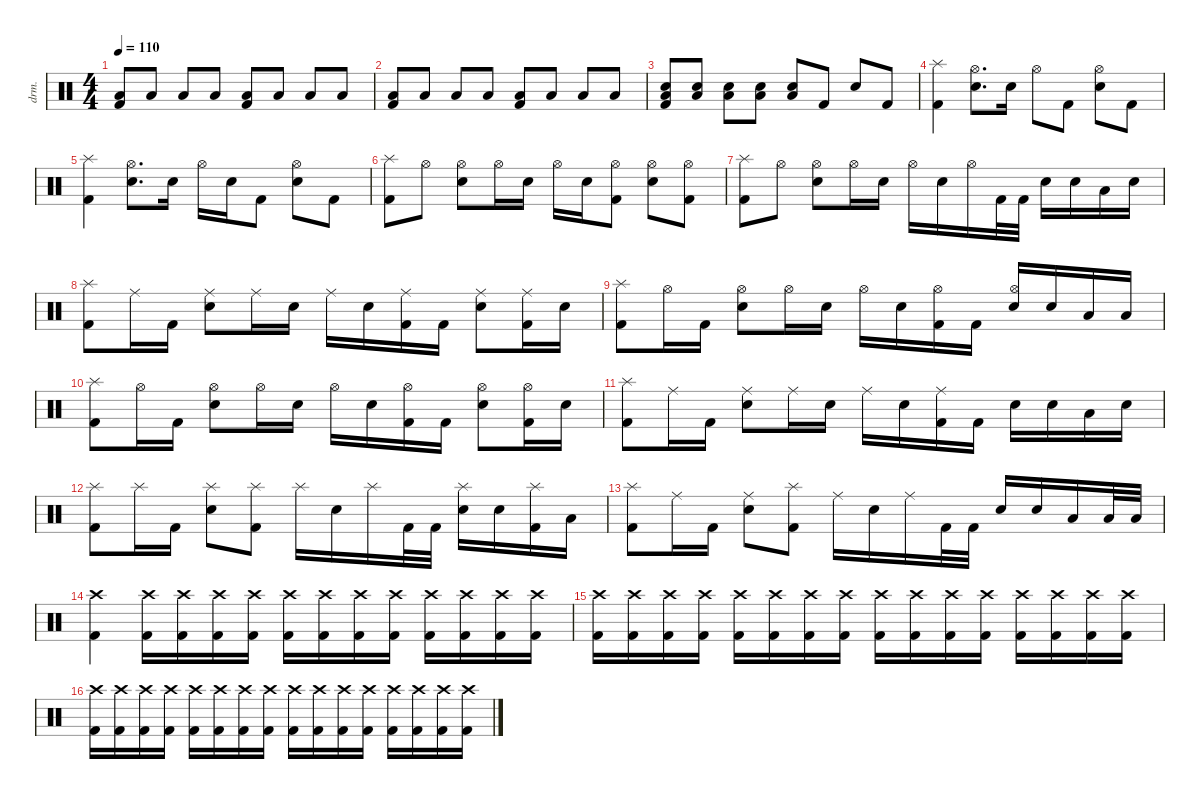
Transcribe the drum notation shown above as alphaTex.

\defaultSystemsLayout 4
\hideDynamics
\bracketExtendMode nobrackets
\track ("Drumkit" "drm.") {instrument percussion}
\staff {score}
\articulation defaults
\ts (4 4)
\tempo 110
\clef neutral
\ks c
("Kick (hit) 2" "Low Tom (hit)").8{dy mf beam Up} "Low Tom (hit)".8{beam Up} "Low Tom (hit)".8{beam Up} "Low Tom (hit)".8{beam Up} ("Low Tom (hit)" "Kick (hit) 2").8{beam Up} "Low Tom (hit)".8{beam Up} "Low Tom (hit)".8{beam Up} "Low Tom (hit)".8{beam Up} |
("Kick (hit) 2" "Low Tom (hit)").8{beam Up} "Low Tom (hit)".8{beam Up} "Low Tom (hit)".8{beam Up} "Low Tom (hit)".8{beam Up} ("Low Tom (hit)" "Kick (hit) 2").8{beam Up} "Low Tom (hit)".8{beam Up} "Low Tom (hit)".8{beam Up} "Low Tom (hit)".8{beam Up} |
("Kick (hit) 2" "Low Tom (hit)" "Snare (hit) 2").8{beam Up} ("Snare (hit) 2" "Low Tom (hit)").8{beam Up} ("Low Tom (hit)" "Snare (hit) 2").8{beam Down} ("Snare (hit) 2" "Low Tom (hit)").8{beam Down} ("Low Tom (hit)" "Snare (hit) 2").8{beam Up} "Kick (hit) 2".8{beam Up} "Snare (hit) 2".8{beam Up} "Kick (hit) 2".8{beam Up} |
("Kick (hit) 2" "Splash (hit)").4{beam Down} ("Hi-Hat (open)" "Snare (hit) 2").8{d beam Down} "Snare (hit) 2".16{beam Down} "Hi-Hat (open)".8{beam Down} "Kick (hit) 2".8{beam Down} ("Snare (hit) 2" "Hi-Hat (open)").8{beam Down} "Kick (hit) 2".8{beam Down} |
("Kick (hit) 2" "Splash (hit)").4{beam Down} ("Hi-Hat (open)" "Snare (hit) 2").8{d beam Down} "Snare (hit) 2".16{beam Down} "Hi-Hat (open)".16{beam Down} "Snare (hit) 2".16{beam Down} "Kick (hit) 2".8{beam Down} ("Snare (hit) 2" "Hi-Hat (open)").8{beam Down} "Kick (hit) 2".8{beam Down} |
("Splash (hit)" "Kick (hit) 2").8{beam Down} "Hi-Hat (open)".8{beam Down} ("Hi-Hat (open)" "Snare (hit) 2").8{beam Down} "Hi-Hat (open)".16{beam Down} "Snare (hit) 2".16{beam Down} "Hi-Hat (open)".16{beam Down} "Snare (hit) 2".16{beam Down} ("Kick (hit) 2" "Hi-Hat (open)").8{beam Down} ("Hi-Hat (open)" "Snare (hit) 2").8{beam Down} ("Hi-Hat (open)" "Kick (hit) 2").8{beam Down} |
("Kick (hit) 2" "Splash (hit)").8{beam Down} "Hi-Hat (open)".8{beam Down} ("Hi-Hat (open)" "Snare (hit) 2").8{beam Down} "Hi-Hat (open)".16{beam Down} "Snare (hit) 2".16{beam Down} "Hi-Hat (open)".16{beam Down} "Snare (hit) 2".16{beam Down} "Hi-Hat (open)".16{beam Down} "Kick (hit) 2".32{beam Down} "Kick (hit) 2".32{beam Down} "Snare (hit) 2".16{beam Down} "Snare (hit) 2".16{beam Down} "Low Tom (hit)".16{beam Down} "Snare (hit) 2".16{beam Down} |
("Splash (hit)" "Kick (hit) 2").8{beam Down} "Ride (middle)".16{beam Down} "Kick (hit) 2".16{beam Down} ("Ride (middle)" "Snare (hit) 2").8{beam Down} "Ride (middle)".16{beam Down} "Snare (hit) 2".16{beam Down} "Ride (middle)".16{beam Down} "Snare (hit) 2".16{beam Down} ("Ride (middle)" "Kick (hit) 2").16{beam Down} "Kick (hit) 2".16{beam Down} ("Snare (hit) 2" "Ride (middle)").8{beam Down} ("Ride (middle)" "Kick (hit) 2").16{beam Down} "Snare (hit) 2".16{beam Down} |
("Splash (hit)" "Kick (hit) 2").8{beam Down} "Hi-Hat (open)".16{beam Down} "Kick (hit) 2".16{beam Down} ("Hi-Hat (open)" "Snare (hit) 2").8{beam Down} "Hi-Hat (open)".16{beam Down} "Snare (hit) 2".16{beam Down} "Hi-Hat (open)".16{beam Down} "Snare (hit) 2".16{beam Down} ("Hi-Hat (open)" "Kick (hit) 2").16{beam Down} "Kick (hit) 2".16{beam Down} ("Snare (hit) 2" "Hi-Hat (open)").16{beam Up} "Snare (hit) 2".16{beam Up} "Low Tom (hit)".16{beam Up} "Low Tom (hit)".16{beam Up} |
("Splash (hit)" "Kick (hit) 2").8{beam Down} "Hi-Hat (open)".16{beam Down} "Kick (hit) 2".16{beam Down} ("Hi-Hat (open)" "Snare (hit) 2").8{beam Down} "Hi-Hat (open)".16{beam Down} "Snare (hit) 2".16{beam Down} "Hi-Hat (open)".16{beam Down} "Snare (hit) 2".16{beam Down} ("Hi-Hat (open)" "Kick (hit) 2").16{beam Down} "Kick (hit) 2".16{beam Down} ("Snare (hit) 2" "Hi-Hat (open)").8{beam Down} ("Hi-Hat (open)" "Kick (hit) 2").16{beam Down} "Snare (hit) 2".16{beam Down} |
("Splash (hit)" "Kick (hit) 2").8{beam Down} "Ride (middle)".16{beam Down} "Kick (hit) 2".16{beam Down} ("Ride (middle)" "Snare (hit) 2").8{beam Down} "Ride (middle)".16{beam Down} "Snare (hit) 2".16{beam Down} "Ride (middle)".16{beam Down} "Snare (hit) 2".16{beam Down} ("Ride (middle)" "Kick (hit) 2").16{beam Down} "Kick (hit) 2".16{beam Down} "Snare (hit) 2".16{beam Down} "Snare (hit) 2".16{beam Down} "Low Tom (hit)".16{beam Down} "Snare (hit) 2".16{beam Down} |
("Splash (hit)" "Kick (hit) 2").8{beam Down} "Splash (hit)".16{beam Down} "Kick (hit) 2".16{beam Down} ("Snare (hit) 2" "Splash (hit)").8{beam Down} ("Splash (hit)" "Kick (hit) 2").8{beam Down} "Splash (hit)".16{beam Down} "Snare (hit) 2".16{beam Down} "Splash (hit)".16{beam Down} "Kick (hit) 2".32{beam Down} "Kick (hit) 2".32{beam Down} ("Splash (hit)" "Snare (hit) 2").16{beam Down} "Snare (hit) 2".16{beam Down} ("Splash (hit)" "Kick (hit) 2").16{beam Down} "Low Tom (hit)".16{beam Down} |
("Kick (hit) 2" "Splash (hit)").8{beam Down} "Ride (middle)".16{beam Down} "Kick (hit) 2".16{beam Down} ("Ride (middle)" "Snare (hit) 2").8{beam Down} ("Kick (hit) 2" "Splash (hit)").8{beam Down} "Ride (middle)".16{beam Down} "Snare (hit) 2".16{beam Down} "Ride (middle)".16{beam Down} "Kick (hit) 2".32{beam Down} "Kick (hit) 2".32{beam Down} "Snare (hit) 2".16{beam Up} "Snare (hit) 2".16{beam Up} "Low Tom (hit)".16{beam Up} "Low Tom (hit)".32{beam Up} "Low Tom (hit)".32{beam Up} |
("Crash high (hit)" "Kick (hit) 2").4{beam Down} ("Crash high (hit)" "Kick (hit) 2").16{beam Down} ("Crash high (hit)" "Kick (hit) 2").16{beam Down} ("Crash high (hit)" "Kick (hit) 2").16{beam Down} ("Crash high (hit)" "Kick (hit) 2").16{beam Down} ("Crash high (hit)" "Kick (hit) 2").16{beam Down} ("Crash high (hit)" "Kick (hit) 2").16{beam Down} ("Crash high (hit)" "Kick (hit) 2").16{beam Down} ("Crash high (hit)" "Kick (hit) 2").16{beam Down} ("Crash high (hit)" "Kick (hit) 2").16{beam Down} ("Crash high (hit)" "Kick (hit) 2").16{beam Down} ("Crash high (hit)" "Kick (hit) 2").16{beam Down} ("Crash high (hit)" "Kick (hit) 2").16{beam Down} |
("Crash high (hit)" "Kick (hit) 2").16{beam Down} ("Crash high (hit)" "Kick (hit) 2").16{beam Down} ("Crash high (hit)" "Kick (hit) 2").16{beam Down} ("Crash high (hit)" "Kick (hit) 2").16{beam Down} ("Crash high (hit)" "Kick (hit) 2").16{beam Down} ("Crash high (hit)" "Kick (hit) 2").16{beam Down} ("Crash high (hit)" "Kick (hit) 2").16{beam Down} ("Crash high (hit)" "Kick (hit) 2").16{beam Down} ("Crash high (hit)" "Kick (hit) 2").16{beam Down} ("Crash high (hit)" "Kick (hit) 2").16{beam Down} ("Crash high (hit)" "Kick (hit) 2").16{beam Down} ("Crash high (hit)" "Kick (hit) 2").16{beam Down} ("Crash high (hit)" "Kick (hit) 2").16{beam Down} ("Crash high (hit)" "Kick (hit) 2").16{beam Down} ("Crash high (hit)" "Kick (hit) 2").16{beam Down} ("Crash high (hit)" "Kick (hit) 2").16{beam Down} |
("Crash high (hit)" "Kick (hit) 2").16{beam Down} ("Crash high (hit)" "Kick (hit) 2").16{beam Down} ("Crash high (hit)" "Kick (hit) 2").16{beam Down} ("Crash high (hit)" "Kick (hit) 2").16{beam Down} ("Crash high (hit)" "Kick (hit) 2").16{beam Down} ("Crash high (hit)" "Kick (hit) 2").16{beam Down} ("Crash high (hit)" "Kick (hit) 2").16{beam Down} ("Crash high (hit)" "Kick (hit) 2").16{beam Down} ("Crash high (hit)" "Kick (hit) 2").16{beam Down} ("Crash high (hit)" "Kick (hit) 2").16{beam Down} ("Crash high (hit)" "Kick (hit) 2").16{beam Down} ("Crash high (hit)" "Kick (hit) 2").16{beam Down} ("Crash high (hit)" "Kick (hit) 2").16{beam Down} ("Crash high (hit)" "Kick (hit) 2").16{beam Down} ("Crash high (hit)" "Kick (hit) 2").16{beam Down} ("Crash high (hit)" "Kick (hit) 2").16{beam Down}
